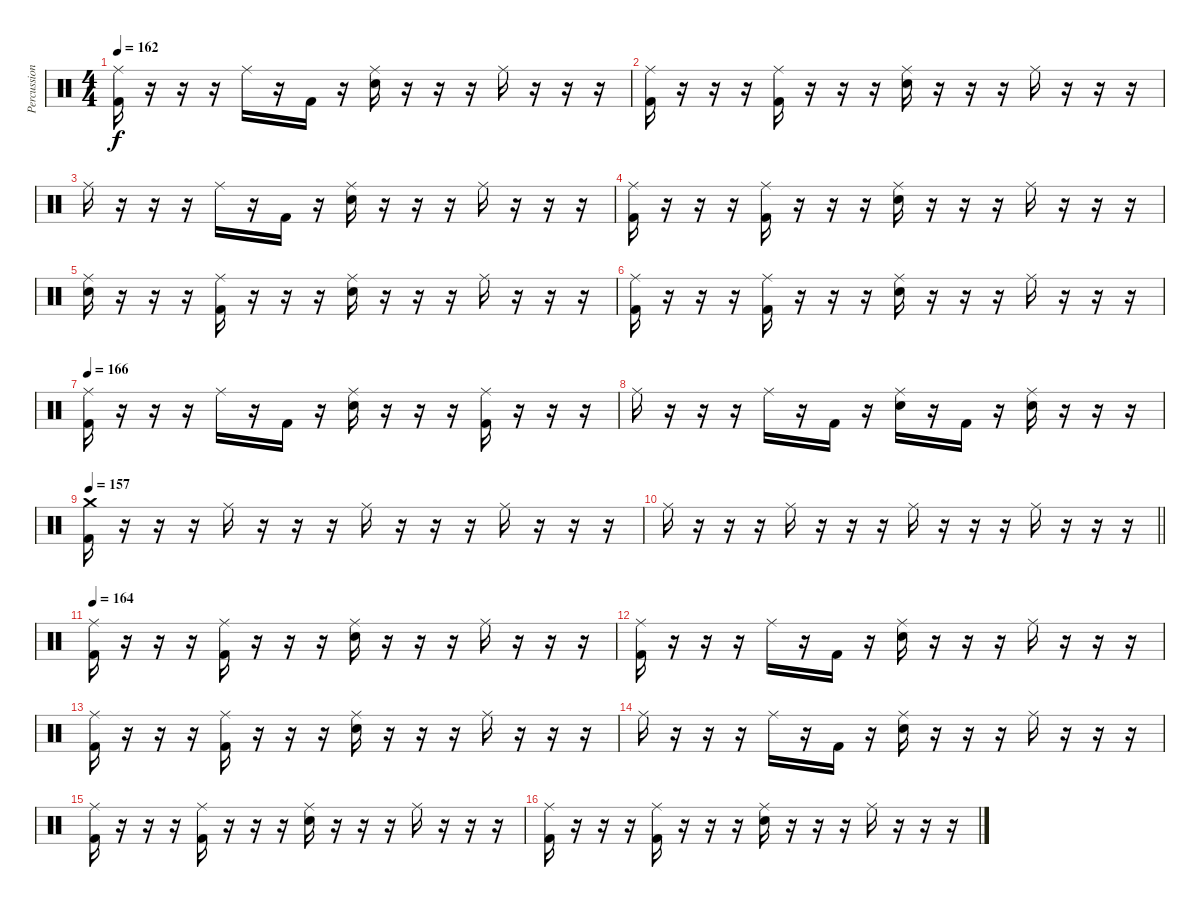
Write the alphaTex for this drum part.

\track ("Percussion" "Percussion") {instrument percussion}
\staff {score}
\articulation defaults
\ts (4 4)
\tempo 162
\clef neutral
\ks c
("Ride (middle)" "Kick (hit) 2").16{dy f} r.16 r.16 r.16 "Ride (middle)".16 r.16 "Kick (hit) 2".16 r.16 ("Ride (middle)" "Electric Snare (hit)").16 r.16 r.16 r.16 "Ride (middle)".16 r.16 r.16 r.16 |
("Ride (middle)" "Kick (hit) 2").16 r.16 r.16 r.16 ("Ride (middle)" "Kick (hit) 2").16 r.16 r.16 r.16 ("Ride (middle)" "Electric Snare (hit)").16 r.16 r.16 r.16 "Ride (middle)".16 r.16 r.16 r.16 |
"Ride (middle)".16 r.16 r.16 r.16 "Ride (middle)".16 r.16 "Kick (hit) 2".16 r.16 ("Ride (middle)" "Electric Snare (hit)").16 r.16 r.16 r.16 "Ride (middle)".16 r.16 r.16 r.16 |
("Ride (middle)" "Kick (hit) 2").16 r.16 r.16 r.16 ("Ride (middle)" "Kick (hit) 2").16 r.16 r.16 r.16 ("Ride (middle)" "Electric Snare (hit)").16 r.16 r.16 r.16 "Ride (middle)".16 r.16 r.16 r.16 |
("Ride (middle)" "Snare (hit)").16 r.16 r.16 r.16 ("Ride (middle)" "Kick (hit) 2").16 r.16 r.16 r.16 ("Ride (middle)" "Electric Snare (hit)").16 r.16 r.16 r.16 "Ride (middle)".16 r.16 r.16 r.16 |
("Ride (middle)" "Kick (hit) 2").16 r.16 r.16 r.16 ("Ride (middle)" "Kick (hit) 2").16 r.16 r.16 r.16 ("Ride (middle)" "Electric Snare (hit)").16 r.16 r.16 r.16 "Ride (middle)".16 r.16 r.16 r.16 |
\tempo 166
("Ride (middle)" "Kick (hit) 2").16 r.16 r.16 r.16 "Ride (middle)".16 r.16 "Kick (hit) 2".16 r.16 ("Ride (middle)" "Electric Snare (hit)").16 r.16 r.16 r.16 ("Ride (middle)" "Kick (hit) 2").16 r.16 r.16 r.16 |
"Ride (middle)".16 r.16 r.16 r.16 "Ride (middle)".16 r.16 "Kick (hit) 2".16 r.16 ("Ride (middle)" "Electric Snare (hit)").16 r.16 "Kick (hit) 2".16 r.16 ("Ride (middle)" "Electric Snare (hit)").16 r.16 r.16 r.16 |
\tempo 157
("Crash medium (hit)" "Kick (hit) 2").16 r.16 r.16 r.16 "Ride (middle)".16 r.16 r.16 r.16 "Ride (middle)".16 r.16 r.16 r.16 "Ride (middle)".16 r.16 r.16 r.16 |
\barLineRight lightlight "Ride (middle)".16
r.16 r.16 r.16 "Ride (middle)".16 r.16 r.16 r.16 "Ride (middle)".16 r.16 r.16 r.16 "Ride (middle)".16 r.16 r.16 r.16 |
\section ("" "")
\tempo 164
("Ride (middle)" "Kick (hit) 2").16 r.16 r.16 r.16 ("Ride (middle)" "Kick (hit) 2").16 r.16 r.16 r.16 ("Ride (middle)" "Electric Snare (hit)").16 r.16 r.16 r.16 "Ride (middle)".16 r.16 r.16 r.16 |
("Ride (middle)" "Kick (hit) 2").16 r.16 r.16 r.16 "Ride (middle)".16 r.16 "Kick (hit) 2".16 r.16 ("Ride (middle)" "Electric Snare (hit)").16 r.16 r.16 r.16 "Ride (middle)".16 r.16 r.16 r.16 |
("Ride (middle)" "Kick (hit) 2").16 r.16 r.16 r.16 ("Ride (middle)" "Kick (hit) 2").16 r.16 r.16 r.16 ("Ride (middle)" "Electric Snare (hit)").16 r.16 r.16 r.16 "Ride (middle)".16 r.16 r.16 r.16 |
"Ride (middle)".16 r.16 r.16 r.16 "Ride (middle)".16 r.16 "Kick (hit) 2".16 r.16 ("Ride (middle)" "Electric Snare (hit)").16 r.16 r.16 r.16 "Ride (middle)".16 r.16 r.16 r.16 |
("Ride (middle)" "Kick (hit) 2").16 r.16 r.16 r.16 ("Ride (middle)" "Kick (hit) 2").16 r.16 r.16 r.16 ("Ride (middle)" "Electric Snare (hit)").16 r.16 r.16 r.16 "Ride (middle)".16 r.16 r.16 r.16 |
("Ride (middle)" "Kick (hit) 2").16 r.16 r.16 r.16 ("Ride (middle)" "Kick (hit) 2").16 r.16 r.16 r.16 ("Ride (middle)" "Electric Snare (hit)").16 r.16 r.16 r.16 "Ride (middle)".16 r.16 r.16 r.16
